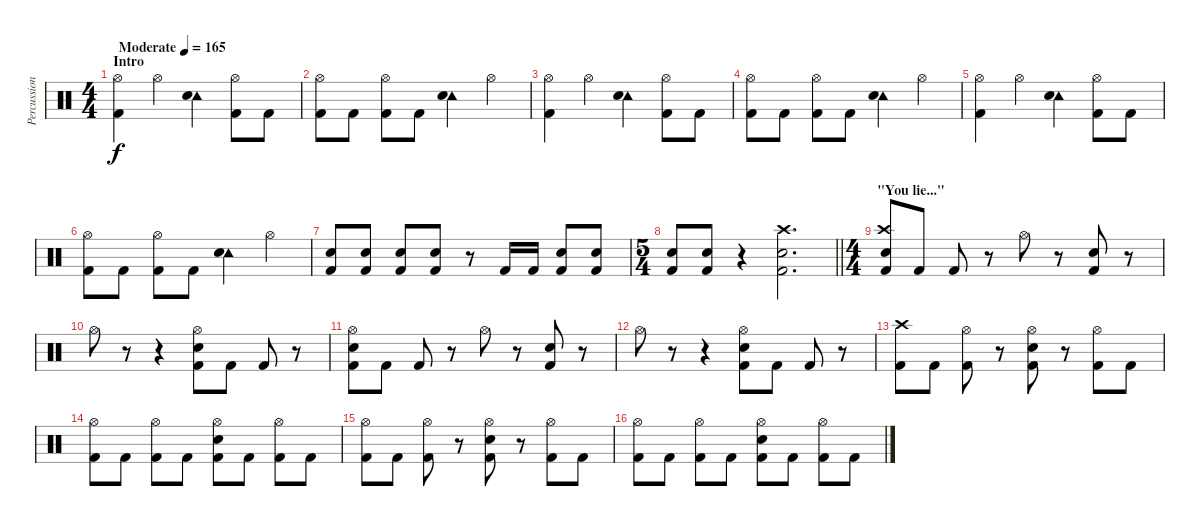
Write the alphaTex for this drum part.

\track ("Percussion" "Percussion") {instrument percussion}
\staff {score}
\articulation defaults
\ts (4 4)
\section ("" "Intro")
\tempo (165 "Moderate")
\clef neutral
\ks c
("Hi-Hat (open)" "Kick (hit) 2").4{dy f} "Hi-Hat (open)".4 ("Tambourine (hit)" "Electric Snare (hit)").4 ("Hi-Hat (open)" "Kick (hit) 2").8 "Kick (hit) 2".8 |
("Hi-Hat (open)" "Kick (hit) 2").8 "Kick (hit) 2".8 ("Hi-Hat (open)" "Kick (hit) 2").8 "Kick (hit) 2".8 ("Tambourine (hit)" "Electric Snare (hit)").4 "Hi-Hat (open)".4 |
("Hi-Hat (open)" "Kick (hit) 2").4 "Hi-Hat (open)".4 ("Tambourine (hit)" "Electric Snare (hit)").4 ("Hi-Hat (open)" "Kick (hit) 2").8 "Kick (hit) 2".8 |
("Hi-Hat (open)" "Kick (hit) 2").8 "Kick (hit) 2".8 ("Hi-Hat (open)" "Kick (hit) 2").8 "Kick (hit) 2".8 ("Tambourine (hit)" "Electric Snare (hit)").4 "Hi-Hat (open)".4 |
("Hi-Hat (open)" "Kick (hit) 2").4 "Hi-Hat (open)".4 ("Tambourine (hit)" "Electric Snare (hit)").4 ("Hi-Hat (open)" "Kick (hit) 2").8 "Kick (hit) 2".8 |
("Hi-Hat (open)" "Kick (hit) 2").8 "Kick (hit) 2".8 ("Hi-Hat (open)" "Kick (hit) 2").8 "Kick (hit) 2".8 ("Tambourine (hit)" "Electric Snare (hit)").4 "Hi-Hat (open)".4 |
("Electric Snare (hit)" "Kick (hit) 2").8 ("Electric Snare (hit)" "Kick (hit) 2").8 ("Electric Snare (hit)" "Kick (hit) 2").8 ("Electric Snare (hit)" "Kick (hit) 2").8 r.8 "Kick (hit) 2".16 "Kick (hit) 2".16 ("Electric Snare (hit)" "Kick (hit) 2").8 ("Electric Snare (hit)" "Kick (hit) 2").8 |
\ts (5 4)
\barLineRight lightlight
("Electric Snare (hit)" "Kick (hit) 2").8 ("Electric Snare (hit)" "Kick (hit) 2").8 r.4 ("Crash high (hit)" "Electric Snare (hit)" "Kick (hit) 2").2{d} |
\ts (4 4)
\section ("" "\"You lie...\"")
("Crash high (hit)" "Snare (hit) 2" "Kick (hit) 2").8 "Kick (hit) 2".8 "Kick (hit) 2".8 r.8 "Hi-Hat (open)".8 r.8 ("Snare (hit) 2" "Kick (hit) 2").8 r.8 |
"Hi-Hat (open)".8 r.8 r.4 ("Hi-Hat (open)" "Electric Snare (hit)" "Kick (hit) 2").8 "Kick (hit) 2".8 "Kick (hit) 2".8 r.8 |
("Hi-Hat (open)" "Snare (hit) 2" "Kick (hit) 2").8 "Kick (hit) 2".8 "Kick (hit) 2".8 r.8 "Hi-Hat (open)".8 r.8 ("Snare (hit) 2" "Kick (hit) 2").8 r.8 |
"Hi-Hat (open)".8 r.8 r.4 ("Hi-Hat (open)" "Electric Snare (hit)" "Kick (hit) 2").8 "Kick (hit) 2".8 "Kick (hit) 2".8 r.8 |
("Crash high (hit)" "Kick (hit) 2").8 "Kick (hit) 2".8 ("Hi-Hat (open)" "Kick (hit) 2").8 r.8 ("Hi-Hat (open)" "Electric Snare (hit)" "Kick (hit) 2").8 r.8 ("Hi-Hat (open)" "Kick (hit) 2").8 "Kick (hit) 2".8 |
("Hi-Hat (open)" "Kick (hit) 2").8 "Kick (hit) 2".8 ("Hi-Hat (open)" "Kick (hit) 2").8 "Kick (hit) 2".8 ("Hi-Hat (open)" "Electric Snare (hit)" "Kick (hit) 2").8 "Kick (hit) 2".8 ("Hi-Hat (open)" "Kick (hit) 2").8 "Kick (hit) 2".8 |
("Hi-Hat (open)" "Kick (hit) 2").8 "Kick (hit) 2".8 ("Hi-Hat (open)" "Kick (hit) 2").8 r.8 ("Hi-Hat (open)" "Electric Snare (hit)" "Kick (hit) 2").8 r.8 ("Hi-Hat (open)" "Kick (hit) 2").8 "Kick (hit) 2".8 |
("Hi-Hat (open)" "Kick (hit) 2").8 "Kick (hit) 2".8 ("Hi-Hat (open)" "Kick (hit) 2").8 "Kick (hit) 2".8 ("Hi-Hat (open)" "Electric Snare (hit)" "Kick (hit) 2").8 "Kick (hit) 2".8 ("Hi-Hat (open)" "Kick (hit) 2").8 "Kick (hit) 2".8
